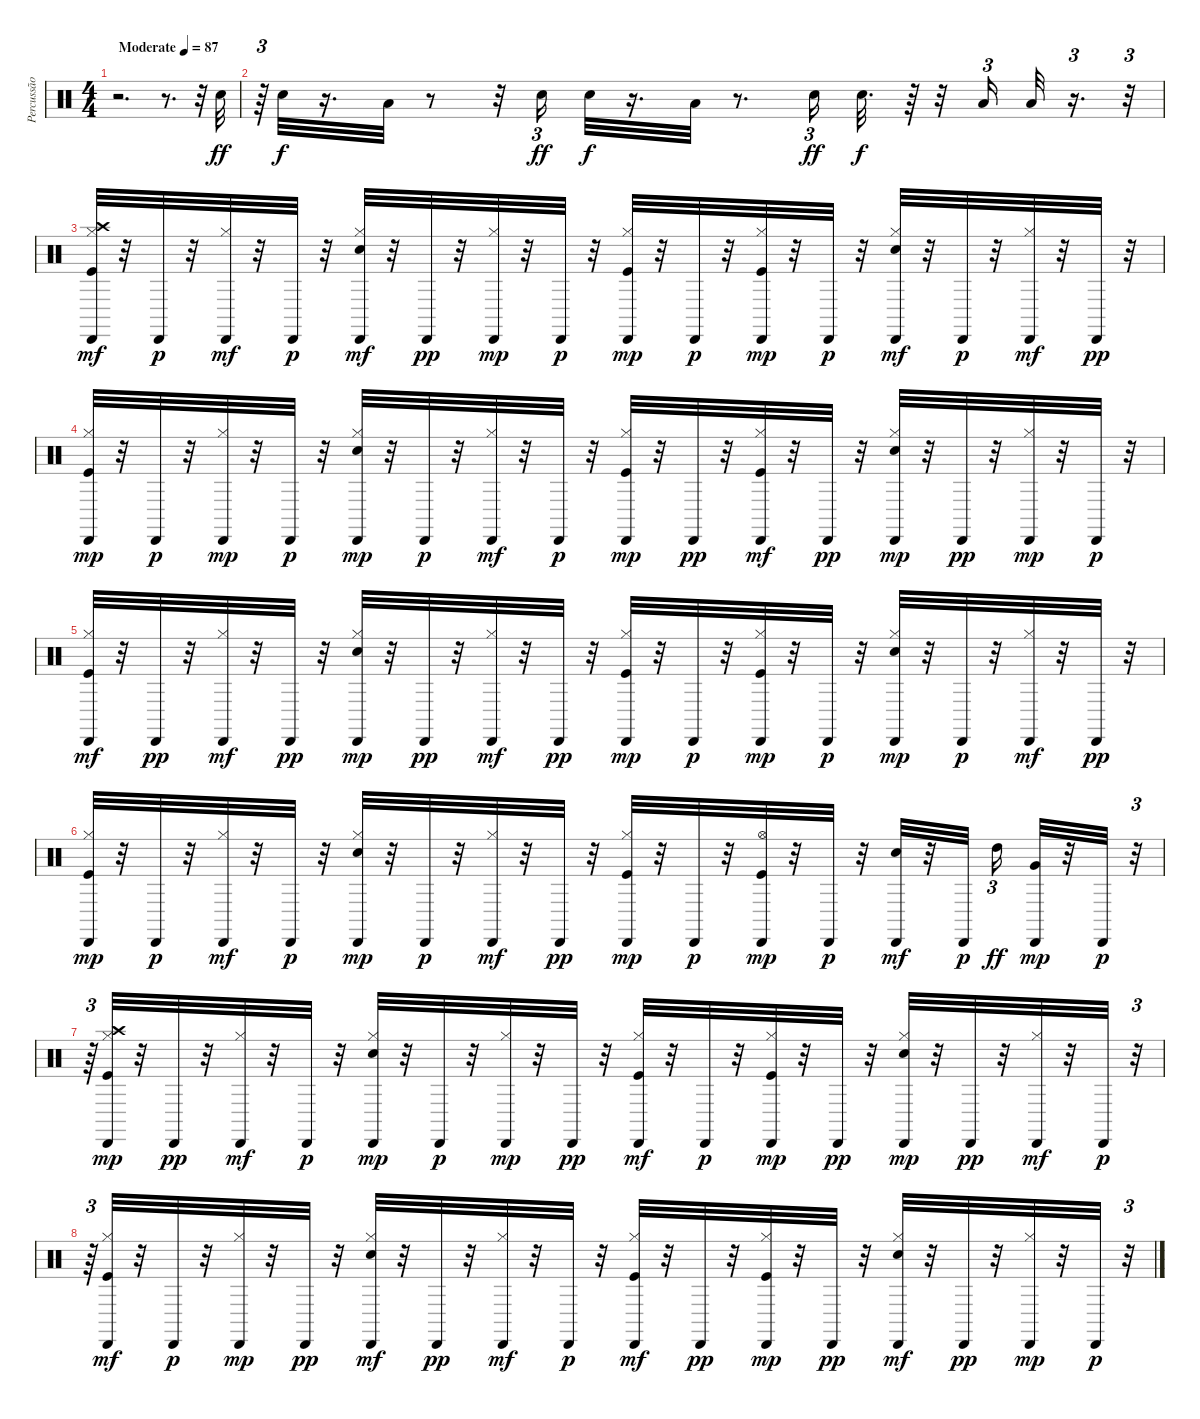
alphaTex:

\track ("Percussão" "Percussão") {instrument percussion}
\staff {score}
\articulation defaults
\ts (4 4)
\tempo (87 "Moderate")
\clef neutral
\ks c
r.2{d dy ff} r.8{d} r.32 "Electric Snare (hit)".32 |
r.64{tu (3 2)} "Electric Snare (hit)".32{dy f} r.16{d} "Low Tom (hit)".32 r.8 r.32 "Electric Snare (hit)".16{tu (3 2) dy ff} "Electric Snare (hit)".32{dy f} r.16{d} "Low Tom (hit)".32 r.8{d} "Electric Snare (hit)".16{tu (3 2) dy ff} "Electric Snare (hit)".32{d dy f} r.64 r.32 "Low Tom (hit)".16{tu (3 2)} "Low Tom (hit)".32 r.16{d tu (3 2)} r.32{tu (3 2)} |
("Kick (hit)" "Hi-Hat (closed)" "Crash high (hit)" "Cabasa (hit)").32{dy mf} r.32 "Cabasa (hit)".32{dy p} r.32 ("Hi-Hat (closed)" "Cabasa (hit)").32{dy mf} r.32 "Cabasa (hit)".32{dy p} r.32 ("Electric Snare (hit)" "Hi-Hat (closed)" "Cabasa (hit)").32{dy mf} r.32 "Cabasa (hit)".32{dy pp} r.32 ("Hi-Hat (closed)" "Cabasa (hit)").32{dy mp} r.32 "Cabasa (hit)".32{dy p} r.32 ("Kick (hit)" "Hi-Hat (closed)" "Cabasa (hit)").32{dy mp} r.32 "Cabasa (hit)".32{dy p} r.32 ("Kick (hit)" "Hi-Hat (closed)" "Cabasa (hit)").32{dy mp} r.32 "Cabasa (hit)".32{dy p} r.32 ("Electric Snare (hit)" "Hi-Hat (closed)" "Cabasa (hit)").32{dy mf} r.32 "Cabasa (hit)".32{dy p} r.32 ("Hi-Hat (closed)" "Cabasa (hit)").32{dy mf} r.32 "Cabasa (hit)".32{dy pp} r.32 |
("Kick (hit)" "Hi-Hat (closed)" "Cabasa (hit)").32{dy mp} r.32 "Cabasa (hit)".32{dy p} r.32 ("Hi-Hat (closed)" "Cabasa (hit)").32{dy mp} r.32 "Cabasa (hit)".32{dy p} r.32 ("Electric Snare (hit)" "Hi-Hat (closed)" "Cabasa (hit)").32{dy mp} r.32 "Cabasa (hit)".32{dy p} r.32 ("Hi-Hat (closed)" "Cabasa (hit)").32{dy mf} r.32 "Cabasa (hit)".32{dy p} r.32 ("Kick (hit)" "Hi-Hat (closed)" "Cabasa (hit)").32{dy mp} r.32 "Cabasa (hit)".32{dy pp} r.32 ("Kick (hit)" "Hi-Hat (closed)" "Cabasa (hit)").32{dy mf} r.32 "Cabasa (hit)".32{dy pp} r.32 ("Electric Snare (hit)" "Hi-Hat (closed)" "Cabasa (hit)").32{dy mp} r.32 "Cabasa (hit)".32{dy pp} r.32 ("Hi-Hat (closed)" "Cabasa (hit)").32{dy mp} r.32 "Cabasa (hit)".32{dy p} r.32 |
("Kick (hit)" "Hi-Hat (closed)" "Cabasa (hit)").32{dy mf} r.32 "Cabasa (hit)".32{dy pp} r.32 ("Hi-Hat (closed)" "Cabasa (hit)").32{dy mf} r.32 "Cabasa (hit)".32{dy pp} r.32 ("Electric Snare (hit)" "Hi-Hat (closed)" "Cabasa (hit)").32{dy mp} r.32 "Cabasa (hit)".32{dy pp} r.32 ("Hi-Hat (closed)" "Cabasa (hit)").32{dy mf} r.32 "Cabasa (hit)".32{dy pp} r.32 ("Kick (hit)" "Hi-Hat (closed)" "Cabasa (hit)").32{dy mp} r.32 "Cabasa (hit)".32{dy p} r.32 ("Kick (hit)" "Hi-Hat (closed)" "Cabasa (hit)").32{dy mp} r.32 "Cabasa (hit)".32{dy p} r.32 ("Electric Snare (hit)" "Hi-Hat (closed)" "Cabasa (hit)").32{dy mp} r.32 "Cabasa (hit)".32{dy p} r.32 ("Hi-Hat (closed)" "Cabasa (hit)").32{dy mf} r.32 "Cabasa (hit)".32{dy pp} r.32 |
("Kick (hit)" "Hi-Hat (closed)" "Cabasa (hit)").32{dy mp} r.32 "Cabasa (hit)".32{dy p} r.32 ("Hi-Hat (closed)" "Cabasa (hit)").32{dy mf} r.32 "Cabasa (hit)".32{dy p} r.32 ("Electric Snare (hit)" "Hi-Hat (closed)" "Cabasa (hit)").32{dy mp} r.32 "Cabasa (hit)".32{dy p} r.32 ("Hi-Hat (closed)" "Cabasa (hit)").32{dy mf} r.32 "Cabasa (hit)".32{dy pp} r.32 ("Kick (hit)" "Hi-Hat (closed)" "Cabasa (hit)").32{dy mp} r.32 "Cabasa (hit)".32{dy p} r.32 ("Kick (hit)" "Hi-Hat (open)" "Cabasa (hit)").32{dy mp} r.32 "Cabasa (hit)".32{dy p} r.32 ("Electric Snare (hit)" "Cabasa (hit)").32{dy mf} r.32 "Cabasa (hit)".32{dy p beam splitsecondary} "High Tom (hit)".16{tu (3 2) dy ff} ("Very Low Tom (hit)" "Cabasa (hit)").32{dy mp} r.32 "Cabasa (hit)".32{dy p} r.32{tu (3 2)} |
r.64{tu (3 2)} ("Kick (hit)" "Hi-Hat (closed)" "Crash high (hit)" "Cabasa (hit)").32{dy mp} r.32 "Cabasa (hit)".32{dy pp} r.32 ("Hi-Hat (closed)" "Cabasa (hit)").32{dy mf} r.32 "Cabasa (hit)".32{dy p} r.32 ("Electric Snare (hit)" "Hi-Hat (closed)" "Cabasa (hit)").32{dy mp} r.32 "Cabasa (hit)".32{dy p} r.32 ("Hi-Hat (closed)" "Cabasa (hit)").32{dy mp} r.32 "Cabasa (hit)".32{dy pp} r.32 ("Kick (hit)" "Hi-Hat (closed)" "Cabasa (hit)").32{dy mf} r.32 "Cabasa (hit)".32{dy p} r.32 ("Kick (hit)" "Hi-Hat (closed)" "Cabasa (hit)").32{dy mp} r.32 "Cabasa (hit)".32{dy pp} r.32 ("Electric Snare (hit)" "Hi-Hat (closed)" "Cabasa (hit)").32{dy mp} r.32 "Cabasa (hit)".32{dy pp} r.32 ("Hi-Hat (closed)" "Cabasa (hit)").32{dy mf} r.32 "Cabasa (hit)".32{dy p} r.32{tu (3 2)} |
r.64{tu (3 2)} ("Kick (hit)" "Hi-Hat (closed)" "Cabasa (hit)").32{dy mf} r.32 "Cabasa (hit)".32{dy p} r.32 ("Hi-Hat (closed)" "Cabasa (hit)").32{dy mp} r.32 "Cabasa (hit)".32{dy pp} r.32 ("Electric Snare (hit)" "Hi-Hat (closed)" "Cabasa (hit)").32{dy mf} r.32 "Cabasa (hit)".32{dy pp} r.32 ("Hi-Hat (closed)" "Cabasa (hit)").32{dy mf} r.32 "Cabasa (hit)".32{dy p} r.32 ("Kick (hit)" "Hi-Hat (closed)" "Cabasa (hit)").32{dy mf} r.32 "Cabasa (hit)".32{dy pp} r.32 ("Kick (hit)" "Hi-Hat (closed)" "Cabasa (hit)").32{dy mp} r.32 "Cabasa (hit)".32{dy pp} r.32 ("Electric Snare (hit)" "Hi-Hat (closed)" "Cabasa (hit)").32{dy mf} r.32 "Cabasa (hit)".32{dy pp} r.32 ("Hi-Hat (closed)" "Cabasa (hit)").32{dy mp} r.32 "Cabasa (hit)".32{dy p} r.32{tu (3 2)}
